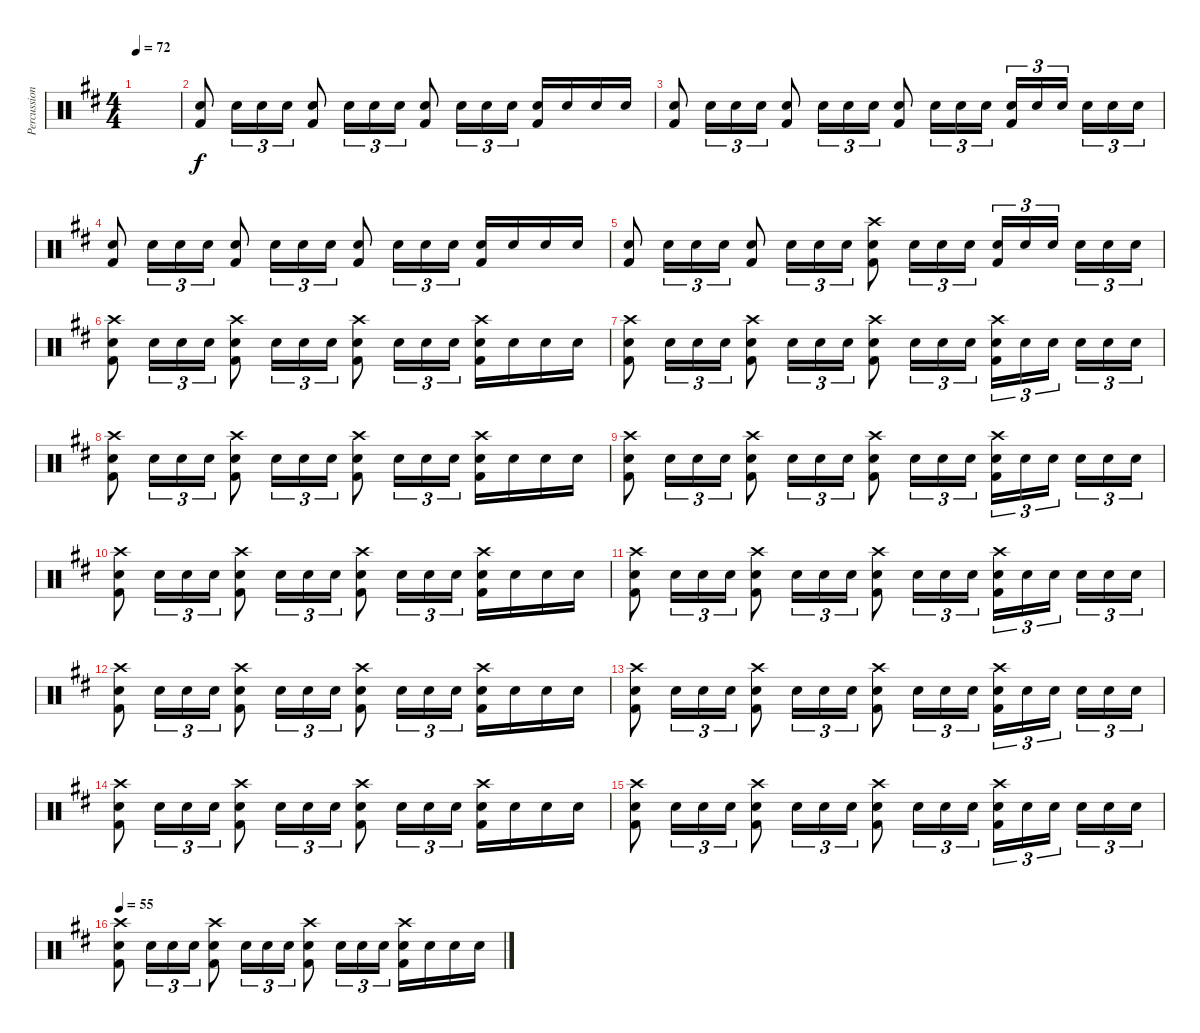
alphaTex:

\track ("Percussion" "Percussion") {instrument percussion}
\staff {score}
\articulation defaults
\ts (4 4)
\tempo 72
\clef neutral
\ks d
|
("Electric Snare (hit)" "Kick (hit) 2").8 "Electric Snare (hit)".16{tu (3 2)} "Electric Snare (hit)".16{tu (3 2)} "Electric Snare (hit)".16{tu (3 2)} ("Electric Snare (hit)" "Kick (hit) 2").8 "Electric Snare (hit)".16{tu (3 2)} "Electric Snare (hit)".16{tu (3 2)} "Electric Snare (hit)".16{tu (3 2)} ("Electric Snare (hit)" "Kick (hit) 2").8 "Electric Snare (hit)".16{tu (3 2)} "Electric Snare (hit)".16{tu (3 2)} "Electric Snare (hit)".16{tu (3 2)} ("Electric Snare (hit)" "Kick (hit) 2").16 "Electric Snare (hit)".16 "Electric Snare (hit)".16 "Electric Snare (hit)".16 |
("Electric Snare (hit)" "Kick (hit) 2").8 "Electric Snare (hit)".16{tu (3 2)} "Electric Snare (hit)".16{tu (3 2)} "Electric Snare (hit)".16{tu (3 2)} ("Electric Snare (hit)" "Kick (hit) 2").8 "Electric Snare (hit)".16{tu (3 2)} "Electric Snare (hit)".16{tu (3 2)} "Electric Snare (hit)".16{tu (3 2)} ("Electric Snare (hit)" "Kick (hit) 2").8 "Electric Snare (hit)".16{tu (3 2)} "Electric Snare (hit)".16{tu (3 2)} "Electric Snare (hit)".16{tu (3 2)} ("Electric Snare (hit)" "Kick (hit) 2").16{tu (3 2)} "Electric Snare (hit)".16{tu (3 2)} "Electric Snare (hit)".16{tu (3 2) beam splitsecondary} "Electric Snare (hit)".16{tu (3 2)} "Electric Snare (hit)".16{tu (3 2)} "Electric Snare (hit)".16{tu (3 2)} |
("Electric Snare (hit)" "Kick (hit) 2").8 "Electric Snare (hit)".16{tu (3 2)} "Electric Snare (hit)".16{tu (3 2)} "Electric Snare (hit)".16{tu (3 2)} ("Electric Snare (hit)" "Kick (hit) 2").8 "Electric Snare (hit)".16{tu (3 2)} "Electric Snare (hit)".16{tu (3 2)} "Electric Snare (hit)".16{tu (3 2)} ("Electric Snare (hit)" "Kick (hit) 2").8 "Electric Snare (hit)".16{tu (3 2)} "Electric Snare (hit)".16{tu (3 2)} "Electric Snare (hit)".16{tu (3 2)} ("Electric Snare (hit)" "Kick (hit) 2").16 "Electric Snare (hit)".16 "Electric Snare (hit)".16 "Electric Snare (hit)".16 |
("Electric Snare (hit)" "Kick (hit) 2").8 "Electric Snare (hit)".16{tu (3 2)} "Electric Snare (hit)".16{tu (3 2)} "Electric Snare (hit)".16{tu (3 2)} ("Electric Snare (hit)" "Kick (hit) 2").8 "Electric Snare (hit)".16{tu (3 2)} "Electric Snare (hit)".16{tu (3 2)} "Electric Snare (hit)".16{tu (3 2)} ("Crash high (hit)" "Electric Snare (hit)" "Kick (hit) 2").8 "Electric Snare (hit)".16{tu (3 2)} "Electric Snare (hit)".16{tu (3 2)} "Electric Snare (hit)".16{tu (3 2)} ("Electric Snare (hit)" "Kick (hit) 2").16{tu (3 2)} "Electric Snare (hit)".16{tu (3 2)} "Electric Snare (hit)".16{tu (3 2) beam splitsecondary} "Electric Snare (hit)".16{tu (3 2)} "Electric Snare (hit)".16{tu (3 2)} "Electric Snare (hit)".16{tu (3 2)} |
("Crash high (hit)" "Electric Snare (hit)" "Kick (hit) 2").8 "Electric Snare (hit)".16{tu (3 2)} "Electric Snare (hit)".16{tu (3 2)} "Electric Snare (hit)".16{tu (3 2)} ("Crash high (hit)" "Electric Snare (hit)" "Kick (hit) 2").8 "Electric Snare (hit)".16{tu (3 2)} "Electric Snare (hit)".16{tu (3 2)} "Electric Snare (hit)".16{tu (3 2)} ("Crash high (hit)" "Electric Snare (hit)" "Kick (hit) 2").8 "Electric Snare (hit)".16{tu (3 2)} "Electric Snare (hit)".16{tu (3 2)} "Electric Snare (hit)".16{tu (3 2)} ("Crash high (hit)" "Electric Snare (hit)" "Kick (hit) 2").16 "Electric Snare (hit)".16 "Electric Snare (hit)".16 "Electric Snare (hit)".16 |
("Crash high (hit)" "Electric Snare (hit)" "Kick (hit) 2").8 "Electric Snare (hit)".16{tu (3 2)} "Electric Snare (hit)".16{tu (3 2)} "Electric Snare (hit)".16{tu (3 2)} ("Crash high (hit)" "Electric Snare (hit)" "Kick (hit) 2").8 "Electric Snare (hit)".16{tu (3 2)} "Electric Snare (hit)".16{tu (3 2)} "Electric Snare (hit)".16{tu (3 2)} ("Crash high (hit)" "Electric Snare (hit)" "Kick (hit) 2").8 "Electric Snare (hit)".16{tu (3 2)} "Electric Snare (hit)".16{tu (3 2)} "Electric Snare (hit)".16{tu (3 2)} ("Crash high (hit)" "Electric Snare (hit)" "Kick (hit) 2").16{tu (3 2)} "Electric Snare (hit)".16{tu (3 2)} "Electric Snare (hit)".16{tu (3 2) beam splitsecondary} "Electric Snare (hit)".16{tu (3 2)} "Electric Snare (hit)".16{tu (3 2)} "Electric Snare (hit)".16{tu (3 2)} |
("Crash high (hit)" "Electric Snare (hit)" "Kick (hit) 2").8 "Electric Snare (hit)".16{tu (3 2)} "Electric Snare (hit)".16{tu (3 2)} "Electric Snare (hit)".16{tu (3 2)} ("Crash high (hit)" "Electric Snare (hit)" "Kick (hit) 2").8 "Electric Snare (hit)".16{tu (3 2)} "Electric Snare (hit)".16{tu (3 2)} "Electric Snare (hit)".16{tu (3 2)} ("Crash high (hit)" "Electric Snare (hit)" "Kick (hit) 2").8 "Electric Snare (hit)".16{tu (3 2)} "Electric Snare (hit)".16{tu (3 2)} "Electric Snare (hit)".16{tu (3 2)} ("Crash high (hit)" "Electric Snare (hit)" "Kick (hit) 2").16 "Electric Snare (hit)".16 "Electric Snare (hit)".16 "Electric Snare (hit)".16 |
("Crash high (hit)" "Electric Snare (hit)" "Kick (hit) 2").8 "Electric Snare (hit)".16{tu (3 2)} "Electric Snare (hit)".16{tu (3 2)} "Electric Snare (hit)".16{tu (3 2)} ("Crash high (hit)" "Electric Snare (hit)" "Kick (hit) 2").8 "Electric Snare (hit)".16{tu (3 2)} "Electric Snare (hit)".16{tu (3 2)} "Electric Snare (hit)".16{tu (3 2)} ("Crash high (hit)" "Electric Snare (hit)" "Kick (hit) 2").8 "Electric Snare (hit)".16{tu (3 2)} "Electric Snare (hit)".16{tu (3 2)} "Electric Snare (hit)".16{tu (3 2)} ("Crash high (hit)" "Electric Snare (hit)" "Kick (hit) 2").16{tu (3 2)} "Electric Snare (hit)".16{tu (3 2)} "Electric Snare (hit)".16{tu (3 2) beam splitsecondary} "Electric Snare (hit)".16{tu (3 2)} "Electric Snare (hit)".16{tu (3 2)} "Electric Snare (hit)".16{tu (3 2)} |
("Crash high (hit)" "Electric Snare (hit)" "Kick (hit) 2").8 "Electric Snare (hit)".16{tu (3 2)} "Electric Snare (hit)".16{tu (3 2)} "Electric Snare (hit)".16{tu (3 2)} ("Crash high (hit)" "Electric Snare (hit)" "Kick (hit) 2").8 "Electric Snare (hit)".16{tu (3 2)} "Electric Snare (hit)".16{tu (3 2)} "Electric Snare (hit)".16{tu (3 2)} ("Crash high (hit)" "Electric Snare (hit)" "Kick (hit) 2").8 "Electric Snare (hit)".16{tu (3 2)} "Electric Snare (hit)".16{tu (3 2)} "Electric Snare (hit)".16{tu (3 2)} ("Crash high (hit)" "Electric Snare (hit)" "Kick (hit) 2").16 "Electric Snare (hit)".16 "Electric Snare (hit)".16 "Electric Snare (hit)".16 |
("Crash high (hit)" "Electric Snare (hit)" "Kick (hit) 2").8 "Electric Snare (hit)".16{tu (3 2)} "Electric Snare (hit)".16{tu (3 2)} "Electric Snare (hit)".16{tu (3 2)} ("Crash high (hit)" "Electric Snare (hit)" "Kick (hit) 2").8 "Electric Snare (hit)".16{tu (3 2)} "Electric Snare (hit)".16{tu (3 2)} "Electric Snare (hit)".16{tu (3 2)} ("Crash high (hit)" "Electric Snare (hit)" "Kick (hit) 2").8 "Electric Snare (hit)".16{tu (3 2)} "Electric Snare (hit)".16{tu (3 2)} "Electric Snare (hit)".16{tu (3 2)} ("Crash high (hit)" "Electric Snare (hit)" "Kick (hit) 2").16{tu (3 2)} "Electric Snare (hit)".16{tu (3 2)} "Electric Snare (hit)".16{tu (3 2) beam splitsecondary} "Electric Snare (hit)".16{tu (3 2)} "Electric Snare (hit)".16{tu (3 2)} "Electric Snare (hit)".16{tu (3 2)} |
("Crash high (hit)" "Electric Snare (hit)" "Kick (hit) 2").8 "Electric Snare (hit)".16{tu (3 2)} "Electric Snare (hit)".16{tu (3 2)} "Electric Snare (hit)".16{tu (3 2)} ("Crash high (hit)" "Electric Snare (hit)" "Kick (hit) 2").8 "Electric Snare (hit)".16{tu (3 2)} "Electric Snare (hit)".16{tu (3 2)} "Electric Snare (hit)".16{tu (3 2)} ("Crash high (hit)" "Electric Snare (hit)" "Kick (hit) 2").8 "Electric Snare (hit)".16{tu (3 2)} "Electric Snare (hit)".16{tu (3 2)} "Electric Snare (hit)".16{tu (3 2)} ("Crash high (hit)" "Electric Snare (hit)" "Kick (hit) 2").16 "Electric Snare (hit)".16 "Electric Snare (hit)".16 "Electric Snare (hit)".16 |
("Crash high (hit)" "Electric Snare (hit)" "Kick (hit) 2").8 "Electric Snare (hit)".16{tu (3 2)} "Electric Snare (hit)".16{tu (3 2)} "Electric Snare (hit)".16{tu (3 2)} ("Crash high (hit)" "Electric Snare (hit)" "Kick (hit) 2").8 "Electric Snare (hit)".16{tu (3 2)} "Electric Snare (hit)".16{tu (3 2)} "Electric Snare (hit)".16{tu (3 2)} ("Crash high (hit)" "Electric Snare (hit)" "Kick (hit) 2").8 "Electric Snare (hit)".16{tu (3 2)} "Electric Snare (hit)".16{tu (3 2)} "Electric Snare (hit)".16{tu (3 2)} ("Crash high (hit)" "Electric Snare (hit)" "Kick (hit) 2").16{tu (3 2)} "Electric Snare (hit)".16{tu (3 2)} "Electric Snare (hit)".16{tu (3 2) beam splitsecondary} "Electric Snare (hit)".16{tu (3 2)} "Electric Snare (hit)".16{tu (3 2)} "Electric Snare (hit)".16{tu (3 2)} |
("Crash high (hit)" "Electric Snare (hit)" "Kick (hit) 2").8 "Electric Snare (hit)".16{tu (3 2)} "Electric Snare (hit)".16{tu (3 2)} "Electric Snare (hit)".16{tu (3 2)} ("Crash high (hit)" "Electric Snare (hit)" "Kick (hit) 2").8 "Electric Snare (hit)".16{tu (3 2)} "Electric Snare (hit)".16{tu (3 2)} "Electric Snare (hit)".16{tu (3 2)} ("Crash high (hit)" "Electric Snare (hit)" "Kick (hit) 2").8 "Electric Snare (hit)".16{tu (3 2)} "Electric Snare (hit)".16{tu (3 2)} "Electric Snare (hit)".16{tu (3 2)} ("Crash high (hit)" "Electric Snare (hit)" "Kick (hit) 2").16 "Electric Snare (hit)".16 "Electric Snare (hit)".16 "Electric Snare (hit)".16 |
("Crash high (hit)" "Electric Snare (hit)" "Kick (hit) 2").8 "Electric Snare (hit)".16{tu (3 2)} "Electric Snare (hit)".16{tu (3 2)} "Electric Snare (hit)".16{tu (3 2)} ("Crash high (hit)" "Electric Snare (hit)" "Kick (hit) 2").8 "Electric Snare (hit)".16{tu (3 2)} "Electric Snare (hit)".16{tu (3 2)} "Electric Snare (hit)".16{tu (3 2)} ("Crash high (hit)" "Electric Snare (hit)" "Kick (hit) 2").8 "Electric Snare (hit)".16{tu (3 2)} "Electric Snare (hit)".16{tu (3 2)} "Electric Snare (hit)".16{tu (3 2)} ("Crash high (hit)" "Electric Snare (hit)" "Kick (hit) 2").16{tu (3 2)} "Electric Snare (hit)".16{tu (3 2)} "Electric Snare (hit)".16{tu (3 2) beam splitsecondary} "Electric Snare (hit)".16{tu (3 2)} "Electric Snare (hit)".16{tu (3 2)} "Electric Snare (hit)".16{tu (3 2)} |
\tempo 55
("Crash high (hit)" "Electric Snare (hit)" "Kick (hit) 2").8 "Electric Snare (hit)".16{tu (3 2)} "Electric Snare (hit)".16{tu (3 2)} "Electric Snare (hit)".16{tu (3 2)} ("Crash high (hit)" "Electric Snare (hit)" "Kick (hit) 2").8 "Electric Snare (hit)".16{tu (3 2)} "Electric Snare (hit)".16{tu (3 2)} "Electric Snare (hit)".16{tu (3 2)} ("Crash high (hit)" "Electric Snare (hit)" "Kick (hit) 2").8 "Electric Snare (hit)".16{tu (3 2)} "Electric Snare (hit)".16{tu (3 2)} "Electric Snare (hit)".16{tu (3 2)} ("Crash high (hit)" "Electric Snare (hit)" "Kick (hit) 2").16 "Electric Snare (hit)".16 "Electric Snare (hit)".16 "Electric Snare (hit)".16
